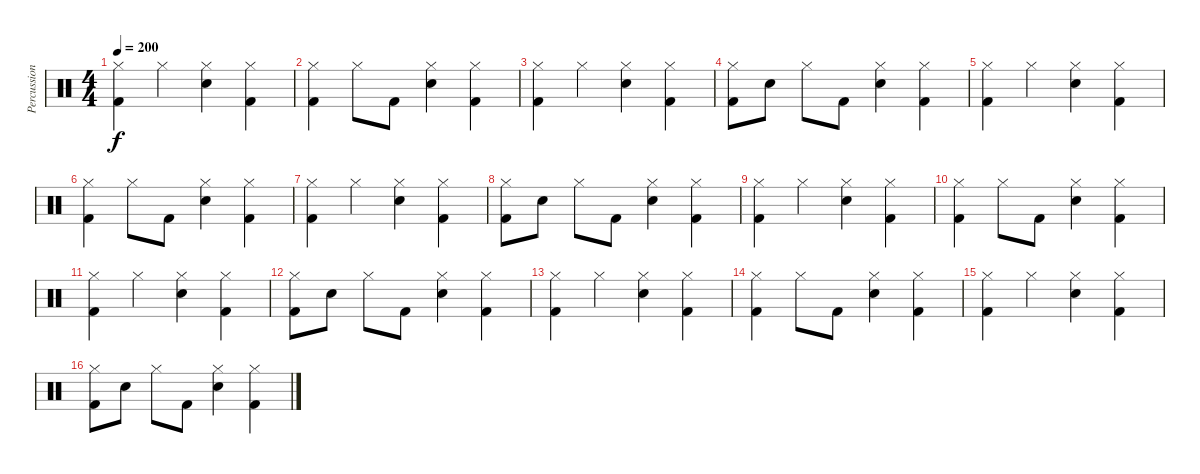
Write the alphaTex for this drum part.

\track ("Percussion" "Percussion") {instrument percussion}
\staff {score}
\articulation defaults
\ts (4 4)
\tempo 200
\clef neutral
\ks c
("Kick (hit) 2" "Hi-Hat (closed)").4{dy f} "Hi-Hat (closed)".4 ("Snare (hit) 2" "Hi-Hat (closed)").4 ("Kick (hit) 2" "Hi-Hat (closed)").4 |
("Kick (hit) 2" "Hi-Hat (closed)").4 "Hi-Hat (closed)".8 "Kick (hit) 2".8 ("Snare (hit) 2" "Hi-Hat (closed)").4 ("Kick (hit) 2" "Hi-Hat (closed)").4 |
("Kick (hit) 2" "Hi-Hat (closed)").4 "Hi-Hat (closed)".4 ("Snare (hit) 2" "Hi-Hat (closed)").4 ("Kick (hit) 2" "Hi-Hat (closed)").4 |
("Kick (hit) 2" "Hi-Hat (closed)").8 "Snare (hit) 2".8 "Hi-Hat (closed)".8 "Kick (hit) 2".8 ("Snare (hit) 2" "Hi-Hat (closed)").4 ("Kick (hit) 2" "Hi-Hat (closed)").4 |
("Kick (hit) 2" "Hi-Hat (closed)").4 "Hi-Hat (closed)".4 ("Snare (hit) 2" "Hi-Hat (closed)").4 ("Kick (hit) 2" "Hi-Hat (closed)").4 |
("Kick (hit) 2" "Hi-Hat (closed)").4 "Hi-Hat (closed)".8 "Kick (hit) 2".8 ("Snare (hit) 2" "Hi-Hat (closed)").4 ("Kick (hit) 2" "Hi-Hat (closed)").4 |
("Kick (hit) 2" "Hi-Hat (closed)").4 "Hi-Hat (closed)".4 ("Snare (hit) 2" "Hi-Hat (closed)").4 ("Kick (hit) 2" "Hi-Hat (closed)").4 |
("Kick (hit) 2" "Hi-Hat (closed)").8 "Snare (hit) 2".8 "Hi-Hat (closed)".8 "Kick (hit) 2".8 ("Snare (hit) 2" "Hi-Hat (closed)").4 ("Kick (hit) 2" "Hi-Hat (closed)").4 |
("Kick (hit) 2" "Hi-Hat (closed)").4 "Hi-Hat (closed)".4 ("Snare (hit) 2" "Hi-Hat (closed)").4 ("Kick (hit) 2" "Hi-Hat (closed)").4 |
("Kick (hit) 2" "Hi-Hat (closed)").4 "Hi-Hat (closed)".8 "Kick (hit) 2".8 ("Snare (hit) 2" "Hi-Hat (closed)").4 ("Kick (hit) 2" "Hi-Hat (closed)").4 |
("Kick (hit) 2" "Hi-Hat (closed)").4 "Hi-Hat (closed)".4 ("Snare (hit) 2" "Hi-Hat (closed)").4 ("Kick (hit) 2" "Hi-Hat (closed)").4 |
("Kick (hit) 2" "Hi-Hat (closed)").8 "Snare (hit) 2".8 "Hi-Hat (closed)".8 "Kick (hit) 2".8 ("Snare (hit) 2" "Hi-Hat (closed)").4 ("Kick (hit) 2" "Hi-Hat (closed)").4 |
("Kick (hit) 2" "Hi-Hat (closed)").4 "Hi-Hat (closed)".4 ("Snare (hit) 2" "Hi-Hat (closed)").4 ("Kick (hit) 2" "Hi-Hat (closed)").4 |
("Kick (hit) 2" "Hi-Hat (closed)").4 "Hi-Hat (closed)".8 "Kick (hit) 2".8 ("Snare (hit) 2" "Hi-Hat (closed)").4 ("Kick (hit) 2" "Hi-Hat (closed)").4 |
("Kick (hit) 2" "Hi-Hat (closed)").4 "Hi-Hat (closed)".4 ("Snare (hit) 2" "Hi-Hat (closed)").4 ("Kick (hit) 2" "Hi-Hat (closed)").4 |
("Kick (hit) 2" "Hi-Hat (closed)").8 "Snare (hit) 2".8 "Hi-Hat (closed)".8 "Kick (hit) 2".8 ("Snare (hit) 2" "Hi-Hat (closed)").4 ("Kick (hit) 2" "Hi-Hat (closed)").4
